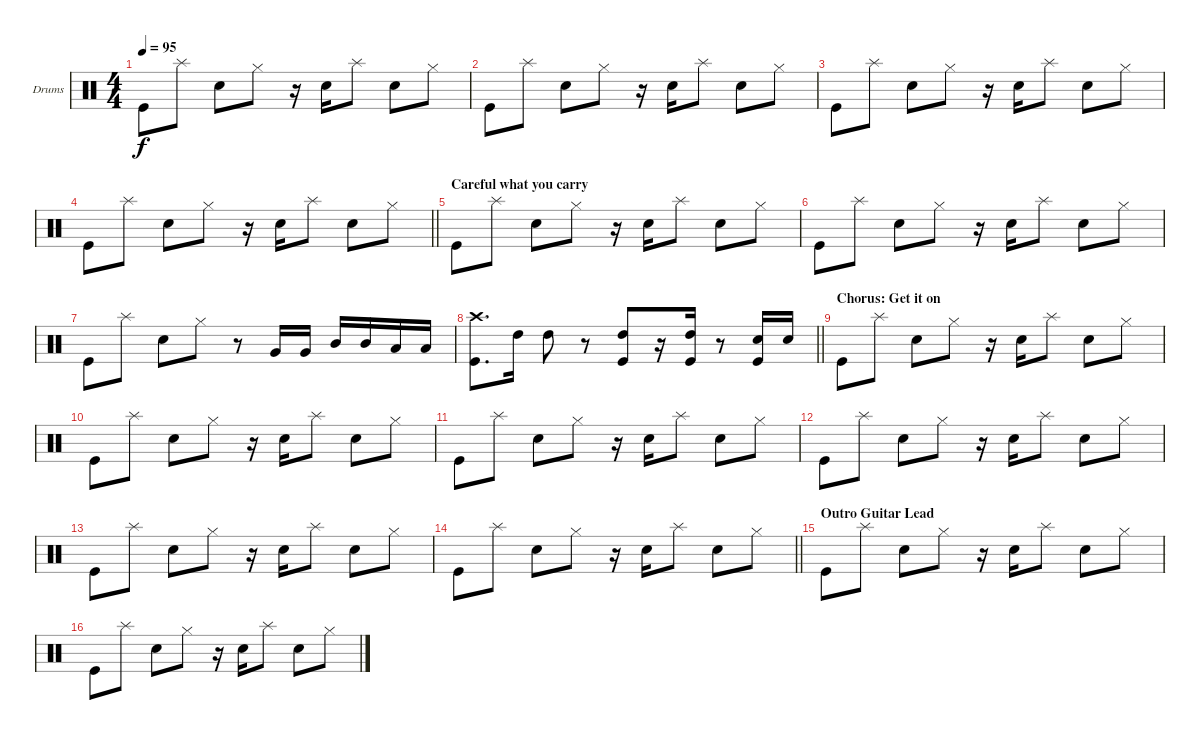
\bracketExtendMode groupsimilarinstruments
\firstSystemTrackNameOrientation horizontal
\otherSystemsTrackNameOrientation horizontal
\track ("Drumkit" "Drums") {instrument percussion}
\staff {score}
\articulation defaults
\ts (4 4)
\tempo 95
\clef neutral
\ks c "Kick (hit)".8{dy f} "Splash (hit)".8 "Snare (hit) 2".8 "Hi-Hat (closed)".8
r.16 "Snare (hit) 2".16 "Splash (hit)".8 "Snare (hit) 2".8 "Hi-Hat (closed)".8 |
"Kick (hit)".8 "Splash (hit)".8 "Snare (hit) 2".8 "Hi-Hat (closed)".8 r.16 "Snare (hit) 2".16 "Splash (hit)".8 "Snare (hit) 2".8 "Hi-Hat (closed)".8 |
"Kick (hit)".8 "Splash (hit)".8 "Snare (hit) 2".8 "Hi-Hat (closed)".8 r.16 "Snare (hit) 2".16 "Splash (hit)".8 "Snare (hit) 2".8 "Hi-Hat (closed)".8 |
\barLineRight lightlight "Kick (hit)".8 "Splash (hit)".8 "Snare (hit) 2".8 "Hi-Hat (closed)".8
r.16 "Snare (hit) 2".16 "Splash (hit)".8 "Snare (hit) 2".8 "Hi-Hat (closed)".8 |
\section ("" "Careful what you carry")
"Kick (hit)".8 "Splash (hit)".8 "Snare (hit) 2".8 "Hi-Hat (closed)".8 r.16 "Snare (hit) 2".16 "Splash (hit)".8 "Snare (hit) 2".8 "Hi-Hat (closed)".8 |
"Kick (hit)".8 "Splash (hit)".8 "Snare (hit) 2".8 "Hi-Hat (closed)".8 r.16 "Snare (hit) 2".16 "Splash (hit)".8 "Snare (hit) 2".8 "Hi-Hat (closed)".8 |
"Kick (hit)".8 "Splash (hit)".8 "Snare (hit) 2".8 "Hi-Hat (closed)".8 r.8 "Very Low Tom (hit)".16 "Very Low Tom (hit)".16 "Mid Tom (hit)".16 "Mid Tom (hit)".16 "Low Tom (hit)".16 "Low Tom (hit)".16 |
\barLineRight lightlight
("Crash high (hit)" "Kick (hit)").8{d} "High Tom (hit)".16 "High Tom (hit)".8 r.8 ("High Tom (hit)" "Kick (hit)").8 r.16 ("High Tom (hit)" "Kick (hit)").16 r.8 ("Snare (hit) 2" "Kick (hit)").16 "Snare (hit) 2".16 |
\section ("" "Chorus: Get it on")
"Kick (hit)".8 "Splash (hit)".8 "Snare (hit) 2".8 "Hi-Hat (closed)".8 r.16 "Snare (hit) 2".16 "Splash (hit)".8 "Snare (hit) 2".8 "Hi-Hat (closed)".8 |
"Kick (hit)".8 "Splash (hit)".8 "Snare (hit) 2".8 "Hi-Hat (closed)".8 r.16 "Snare (hit) 2".16 "Splash (hit)".8 "Snare (hit) 2".8 "Hi-Hat (closed)".8 |
"Kick (hit)".8 "Splash (hit)".8 "Snare (hit) 2".8 "Hi-Hat (closed)".8 r.16 "Snare (hit) 2".16 "Splash (hit)".8 "Snare (hit) 2".8 "Hi-Hat (closed)".8 |
"Kick (hit)".8 "Splash (hit)".8 "Snare (hit) 2".8 "Hi-Hat (closed)".8 r.16 "Snare (hit) 2".16 "Splash (hit)".8 "Snare (hit) 2".8 "Hi-Hat (closed)".8 |
"Kick (hit)".8 "Splash (hit)".8 "Snare (hit) 2".8 "Hi-Hat (closed)".8 r.16 "Snare (hit) 2".16 "Splash (hit)".8 "Snare (hit) 2".8 "Hi-Hat (closed)".8 |
\barLineRight lightlight "Kick (hit)".8 "Splash (hit)".8 "Snare (hit) 2".8 "Hi-Hat (closed)".8
r.16 "Snare (hit) 2".16 "Splash (hit)".8 "Snare (hit) 2".8 "Hi-Hat (closed)".8 |
\section ("" "Outro Guitar Lead")
"Kick (hit)".8 "Splash (hit)".8 "Snare (hit) 2".8 "Hi-Hat (closed)".8 r.16 "Snare (hit) 2".16 "Splash (hit)".8 "Snare (hit) 2".8 "Hi-Hat (closed)".8 |
"Kick (hit)".8 "Splash (hit)".8 "Snare (hit) 2".8 "Hi-Hat (closed)".8 r.16 "Snare (hit) 2".16 "Splash (hit)".8 "Snare (hit) 2".8 "Hi-Hat (closed)".8
